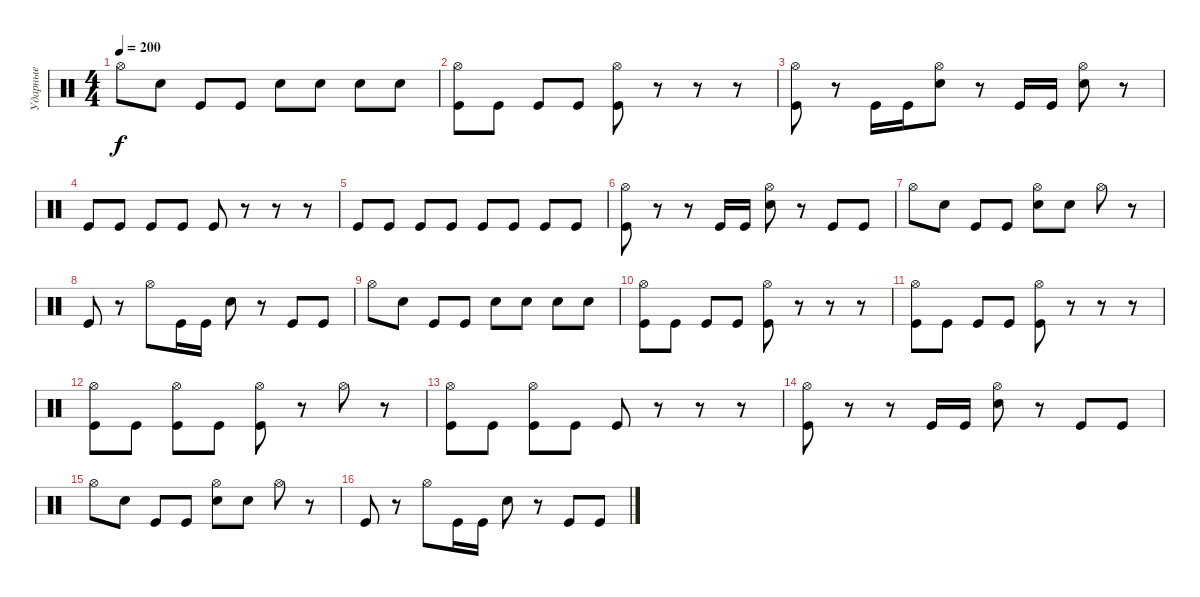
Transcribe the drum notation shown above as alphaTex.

\track ("Ударные" "Ударные") {instrument percussion}
\staff {score}
\articulation defaults
\ts (4 4)
\tempo 200
\clef neutral
\ks c "Hi-Hat (open)".8{dy f} "Snare (hit) 2".8 "Kick (hit)".8 "Kick (hit)".8 "Snare (hit) 2".8 "Snare (hit) 2".8 "Snare (hit) 2".8 "Snare (hit) 2".8
|
("Hi-Hat (open)" "Kick (hit)").8 "Kick (hit)".8 "Kick (hit)".8 "Kick (hit)".8 ("Hi-Hat (open)" "Kick (hit)").8 r.8 r.8 r.8 |
("Hi-Hat (open)" "Kick (hit)").8 r.8 "Kick (hit)".16 "Kick (hit)".16 ("Hi-Hat (open)" "Snare (hit) 2").8 r.8 "Kick (hit)".16 "Kick (hit)".16 ("Hi-Hat (open)" "Snare (hit) 2").8 r.8 |
"Kick (hit)".8 "Kick (hit)".8 "Kick (hit)".8 "Kick (hit)".8 "Kick (hit)".8 r.8 r.8 r.8 |
"Kick (hit)".8 "Kick (hit)".8 "Kick (hit)".8 "Kick (hit)".8 "Kick (hit)".8 "Kick (hit)".8 "Kick (hit)".8 "Kick (hit)".8 |
("Hi-Hat (open)" "Kick (hit)").8 r.8 r.8 "Kick (hit)".16 "Kick (hit)".16 ("Hi-Hat (open)" "Snare (hit) 2").8 r.8 "Kick (hit)".8 "Kick (hit)".8 |
"Hi-Hat (open)".8 "Snare (hit) 2".8 "Kick (hit)".8 "Kick (hit)".8 ("Hi-Hat (open)" "Snare (hit) 2").8 "Snare (hit) 2".8 "Hi-Hat (open)".8 r.8 |
"Kick (hit)".8 r.8 "Hi-Hat (open)".8 "Kick (hit)".16 "Kick (hit)".16 "Snare (hit) 2".8 r.8 "Kick (hit)".8 "Kick (hit)".8 |
"Hi-Hat (open)".8 "Snare (hit) 2".8 "Kick (hit)".8 "Kick (hit)".8 "Snare (hit) 2".8 "Snare (hit) 2".8 "Snare (hit) 2".8 "Snare (hit) 2".8 |
("Hi-Hat (open)" "Kick (hit)").8 "Kick (hit)".8 "Kick (hit)".8 "Kick (hit)".8 ("Hi-Hat (open)" "Kick (hit)").8 r.8 r.8 r.8 |
("Hi-Hat (open)" "Kick (hit)").8 "Kick (hit)".8 "Kick (hit)".8 "Kick (hit)".8 ("Hi-Hat (open)" "Kick (hit)").8 r.8 r.8 r.8 |
("Hi-Hat (open)" "Kick (hit)").8 "Kick (hit)".8 ("Hi-Hat (open)" "Kick (hit)").8 "Kick (hit)".8 ("Hi-Hat (open)" "Kick (hit)").8 r.8 "Hi-Hat (open)".8 r.8 |
("Hi-Hat (open)" "Kick (hit)").8 "Kick (hit)".8 ("Hi-Hat (open)" "Kick (hit)").8 "Kick (hit)".8 "Kick (hit)".8 r.8 r.8 r.8 |
("Hi-Hat (open)" "Kick (hit)").8 r.8 r.8 "Kick (hit)".16 "Kick (hit)".16 ("Hi-Hat (open)" "Snare (hit) 2").8 r.8 "Kick (hit)".8 "Kick (hit)".8 |
"Hi-Hat (open)".8 "Snare (hit) 2".8 "Kick (hit)".8 "Kick (hit)".8 ("Hi-Hat (open)" "Snare (hit) 2").8 "Snare (hit) 2".8 "Hi-Hat (open)".8 r.8 |
"Kick (hit)".8 r.8 "Hi-Hat (open)".8 "Kick (hit)".16 "Kick (hit)".16 "Snare (hit) 2".8 r.8 "Kick (hit)".8 "Kick (hit)".8
